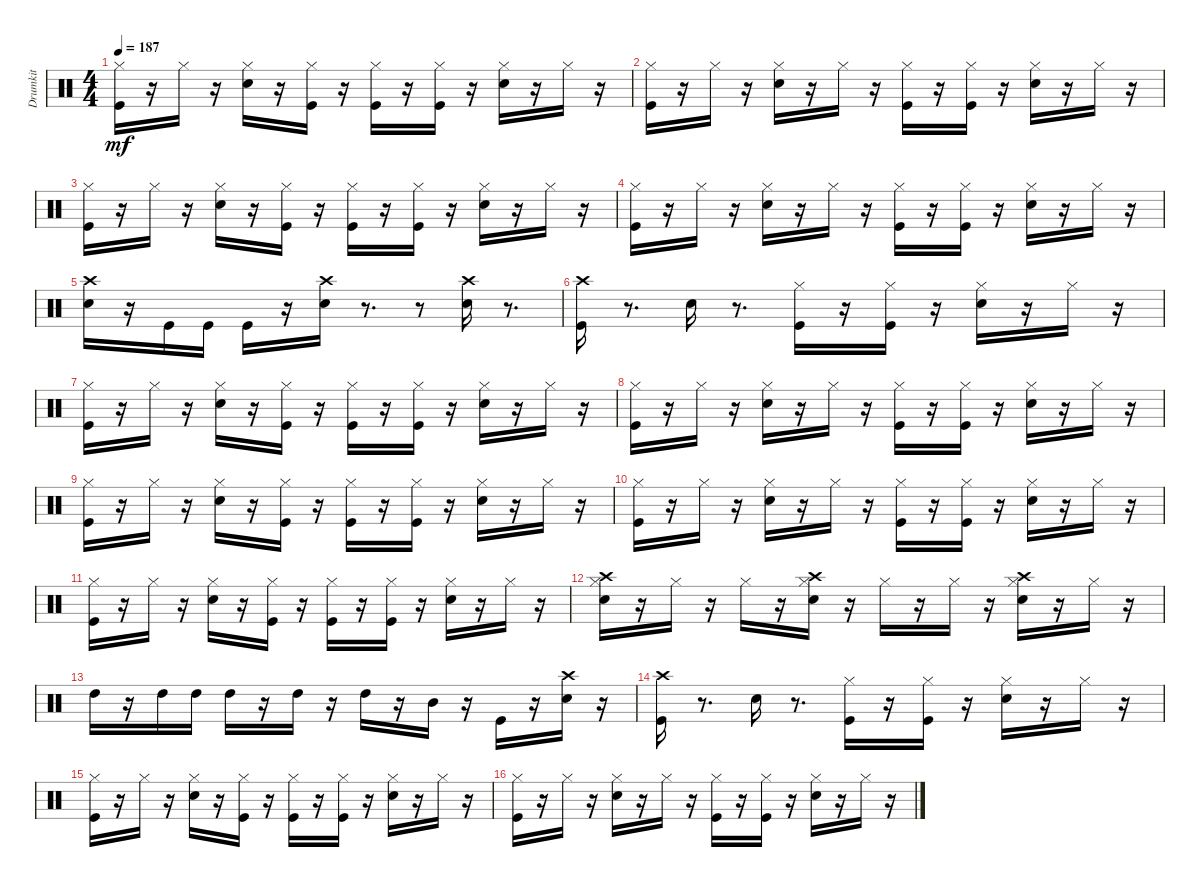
\track ("Drumkit" "Drumkit") {instrument percussion}
\staff {score}
\articulation defaults
\ts (4 4)
\tempo 187
\clef neutral
\ks c
("Kick (hit)" "Hi-Hat (closed)").16{dy mf} r.16 "Hi-Hat (closed)".16 r.16 ("Snare (hit) 2" "Hi-Hat (closed)").16 r.16 ("Kick (hit)" "Hi-Hat (closed)").16 r.16 ("Kick (hit)" "Hi-Hat (closed)").16 r.16 ("Kick (hit)" "Hi-Hat (closed)").16 r.16 ("Snare (hit) 2" "Hi-Hat (closed)").16 r.16 "Hi-Hat (closed)".16 r.16 |
("Kick (hit)" "Hi-Hat (closed)").16 r.16 "Hi-Hat (closed)".16 r.16 ("Snare (hit) 2" "Hi-Hat (closed)").16 r.16 "Hi-Hat (closed)".16 r.16 ("Kick (hit)" "Hi-Hat (closed)").16 r.16 ("Kick (hit)" "Hi-Hat (closed)").16 r.16 ("Snare (hit) 2" "Hi-Hat (closed)").16 r.16 "Hi-Hat (closed)".16 r.16 |
("Kick (hit)" "Hi-Hat (closed)").16 r.16 "Hi-Hat (closed)".16 r.16 ("Snare (hit) 2" "Hi-Hat (closed)").16 r.16 ("Kick (hit)" "Hi-Hat (closed)").16 r.16 ("Kick (hit)" "Hi-Hat (closed)").16 r.16 ("Kick (hit)" "Hi-Hat (closed)").16 r.16 ("Snare (hit) 2" "Hi-Hat (closed)").16 r.16 "Hi-Hat (closed)".16 r.16 |
("Hi-Hat (closed)" "Kick (hit)").16 r.16 "Hi-Hat (closed)".16 r.16 ("Snare (hit) 2" "Hi-Hat (closed)").16 r.16 "Hi-Hat (closed)".16 r.16 ("Kick (hit)" "Hi-Hat (closed)").16 r.16 ("Kick (hit)" "Hi-Hat (closed)").16 r.16 ("Snare (hit) 2" "Hi-Hat (closed)").16 r.16 "Hi-Hat (closed)".16 r.16 |
("Crash high (hit)" "Snare (hit) 2").16 r.16 "Kick (hit)".16 "Kick (hit)".16 "Kick (hit)".16 r.16 ("Crash high (hit)" "Snare (hit) 2").16 r.8{d} r.8 ("Crash high (hit)" "Snare (hit) 2").16 r.8{d} |
("Crash high (hit)" "Kick (hit)").16 r.8{d} "Snare (hit) 2".16 r.8{d} ("Kick (hit)" "Hi-Hat (closed)").16 r.16 ("Kick (hit)" "Hi-Hat (closed)").16 r.16 ("Snare (hit) 2" "Hi-Hat (closed)").16 r.16 "Hi-Hat (closed)".16 r.16 |
("Kick (hit)" "Hi-Hat (closed)").16 r.16 "Hi-Hat (closed)".16 r.16 ("Snare (hit) 2" "Hi-Hat (closed)").16 r.16 ("Kick (hit)" "Hi-Hat (closed)").16 r.16 ("Kick (hit)" "Hi-Hat (closed)").16 r.16 ("Kick (hit)" "Hi-Hat (closed)").16 r.16 ("Snare (hit) 2" "Hi-Hat (closed)").16 r.16 "Hi-Hat (closed)".16 r.16 |
("Kick (hit)" "Hi-Hat (closed)").16 r.16 "Hi-Hat (closed)".16 r.16 ("Snare (hit) 2" "Hi-Hat (closed)").16 r.16 "Hi-Hat (closed)".16 r.16 ("Kick (hit)" "Hi-Hat (closed)").16 r.16 ("Kick (hit)" "Hi-Hat (closed)").16 r.16 ("Snare (hit) 2" "Hi-Hat (closed)").16 r.16 "Hi-Hat (closed)".16 r.16 |
("Kick (hit)" "Hi-Hat (closed)").16 r.16 "Hi-Hat (closed)".16 r.16 ("Snare (hit) 2" "Hi-Hat (closed)").16 r.16 ("Kick (hit)" "Hi-Hat (closed)").16 r.16 ("Kick (hit)" "Hi-Hat (closed)").16 r.16 ("Kick (hit)" "Hi-Hat (closed)").16 r.16 ("Snare (hit) 2" "Hi-Hat (closed)").16 r.16 "Hi-Hat (closed)".16 r.16 |
("Kick (hit)" "Hi-Hat (closed)").16 r.16 "Hi-Hat (closed)".16 r.16 ("Snare (hit) 2" "Hi-Hat (closed)").16 r.16 "Hi-Hat (closed)".16 r.16 ("Kick (hit)" "Hi-Hat (closed)").16 r.16 ("Kick (hit)" "Hi-Hat (closed)").16 r.16 ("Snare (hit) 2" "Hi-Hat (closed)").16 r.16 "Hi-Hat (closed)".16 r.16 |
("Hi-Hat (closed)" "Kick (hit)").16 r.16 "Hi-Hat (closed)".16 r.16 ("Snare (hit) 2" "Hi-Hat (closed)").16 r.16 ("Kick (hit)" "Hi-Hat (closed)").16 r.16 ("Kick (hit)" "Hi-Hat (closed)").16 r.16 ("Kick (hit)" "Hi-Hat (closed)").16 r.16 ("Snare (hit) 2" "Hi-Hat (closed)").16 r.16 "Hi-Hat (closed)".16 r.16 |
("Crash high (hit)" "Snare (hit) 2" "Hi-Hat (closed)").16 r.16 "Hi-Hat (closed)".16 r.16 "Hi-Hat (closed)".16 r.16 ("Crash high (hit)" "Snare (hit) 2" "Hi-Hat (closed)").16 r.16 "Hi-Hat (closed)".16 r.16 "Hi-Hat (closed)".16 r.16 ("Crash high (hit)" "Snare (hit) 2" "Hi-Hat (closed)").16 r.16 "Hi-Hat (closed)".16 r.16 |
"High Tom (hit)".16 r.16 "High Tom (hit)".16 "High Tom (hit)".16 "High Tom (hit)".16 r.16 "High Tom (hit)".16 r.16 "High Tom (hit)".16 r.16 "Mid Tom (hit)".16 r.16 "Kick (hit)".16 r.16 ("Snare (hit) 2" "Crash high (hit)").16 r.16 |
("Crash high (hit)" "Kick (hit)").16 r.8{d} "Snare (hit) 2".16 r.8{d} ("Kick (hit)" "Hi-Hat (closed)").16 r.16 ("Kick (hit)" "Hi-Hat (closed)").16 r.16 ("Snare (hit) 2" "Hi-Hat (closed)").16 r.16 "Hi-Hat (closed)".16 r.16 |
("Kick (hit)" "Hi-Hat (closed)").16 r.16 "Hi-Hat (closed)".16 r.16 ("Snare (hit) 2" "Hi-Hat (closed)").16 r.16 ("Kick (hit)" "Hi-Hat (closed)").16 r.16 ("Kick (hit)" "Hi-Hat (closed)").16 r.16 ("Kick (hit)" "Hi-Hat (closed)").16 r.16 ("Snare (hit) 2" "Hi-Hat (closed)").16 r.16 "Hi-Hat (closed)".16 r.16 |
("Kick (hit)" "Hi-Hat (closed)").16 r.16 "Hi-Hat (closed)".16 r.16 ("Snare (hit) 2" "Hi-Hat (closed)").16 r.16 "Hi-Hat (closed)".16 r.16 ("Kick (hit)" "Hi-Hat (closed)").16 r.16 ("Kick (hit)" "Hi-Hat (closed)").16 r.16 ("Snare (hit) 2" "Hi-Hat (closed)").16 r.16 "Hi-Hat (closed)".16 r.16
